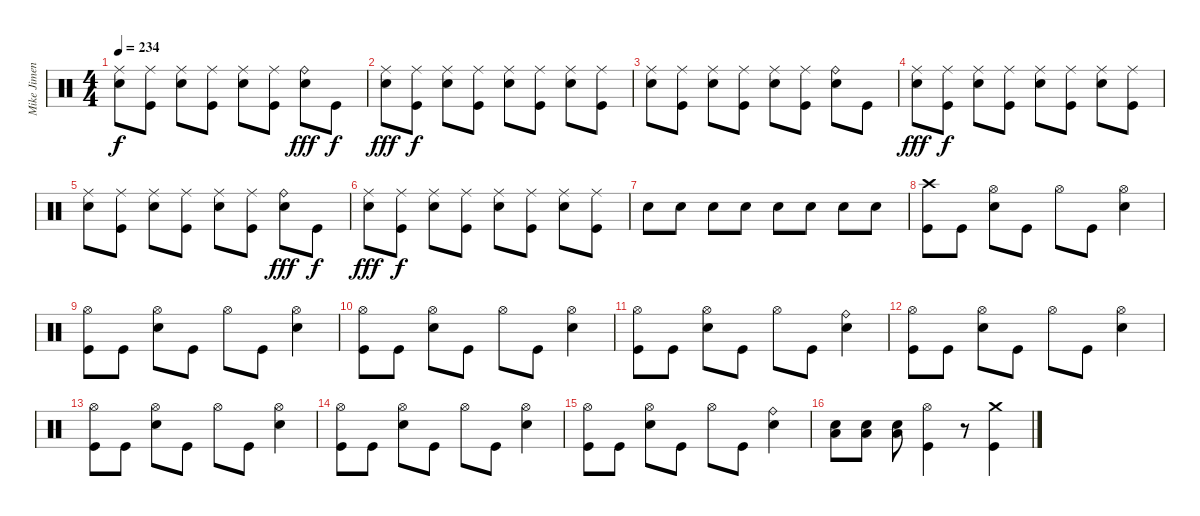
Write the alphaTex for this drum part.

\track ("Mike Jimenez" "Mike Jimen") {instrument percussion}
\staff {score}
\articulation defaults
\ts (4 4)
\tempo 234
\clef neutral
\ks c
("Ride (middle)" "Electric Snare (hit)").8{dy f} ("Ride (middle)" "Kick (hit)").8 ("Ride (middle)" "Electric Snare (hit)").8 ("Ride (middle)" "Kick (hit)").8 ("Ride (middle)" "Electric Snare (hit)").8 ("Ride (middle)" "Kick (hit)").8 ("Ride (bell)" "Electric Snare (hit)").8{dy fff} "Kick (hit)".8{dy f} |
("Ride (middle)" "Electric Snare (hit)").8{dy fff} ("Ride (middle)" "Kick (hit)").8{dy f} ("Ride (middle)" "Electric Snare (hit)").8 ("Ride (middle)" "Kick (hit)").8 ("Ride (middle)" "Electric Snare (hit)").8 ("Ride (middle)" "Kick (hit)").8 ("Ride (middle)" "Electric Snare (hit)").8 ("Ride (middle)" "Kick (hit)").8 |
("Ride (middle)" "Electric Snare (hit)").8 ("Ride (middle)" "Kick (hit)").8 ("Ride (middle)" "Electric Snare (hit)").8 ("Ride (middle)" "Kick (hit)").8 ("Ride (middle)" "Electric Snare (hit)").8 ("Ride (middle)" "Kick (hit)").8 ("Ride (bell)" "Electric Snare (hit)").8 "Kick (hit)".8 |
("Ride (middle)" "Electric Snare (hit)").8{dy fff} ("Ride (middle)" "Kick (hit)").8{dy f} ("Ride (middle)" "Electric Snare (hit)").8 ("Ride (middle)" "Kick (hit)").8 ("Ride (middle)" "Electric Snare (hit)").8 ("Ride (middle)" "Kick (hit)").8 ("Ride (middle)" "Electric Snare (hit)").8 ("Ride (middle)" "Kick (hit)").8 |
("Ride (middle)" "Electric Snare (hit)").8 ("Ride (middle)" "Kick (hit)").8 ("Ride (middle)" "Electric Snare (hit)").8 ("Ride (middle)" "Kick (hit)").8 ("Ride (middle)" "Electric Snare (hit)").8 ("Ride (middle)" "Kick (hit)").8 ("Ride (bell)" "Electric Snare (hit)").8{dy fff} "Kick (hit)".8{dy f} |
("Ride (middle)" "Electric Snare (hit)").8{dy fff} ("Ride (middle)" "Kick (hit)").8{dy f} ("Ride (middle)" "Electric Snare (hit)").8 ("Ride (middle)" "Kick (hit)").8 ("Ride (middle)" "Electric Snare (hit)").8 ("Ride (middle)" "Kick (hit)").8 ("Ride (middle)" "Electric Snare (hit)").8 ("Ride (middle)" "Kick (hit)").8 |
"Electric Snare (hit)".8 "Electric Snare (hit)".8 "Electric Snare (hit)".8 "Electric Snare (hit)".8 "Electric Snare (hit)".8 "Electric Snare (hit)".8 "Electric Snare (hit)".8 "Electric Snare (hit)".8 |
("Crash high (hit)" "Kick (hit)").8 "Kick (hit)".8 ("Hi-Hat (open)" "Electric Snare (hit)").8 "Kick (hit)".8 "Hi-Hat (open)".8 "Kick (hit)".8 ("Hi-Hat (open)" "Electric Snare (hit)").4 |
("Hi-Hat (open)" "Kick (hit)").8 "Kick (hit)".8 ("Hi-Hat (open)" "Electric Snare (hit)").8 "Kick (hit)".8 "Hi-Hat (open)".8 "Kick (hit)".8 ("Hi-Hat (open)" "Electric Snare (hit)").4 |
("Hi-Hat (open)" "Kick (hit)").8 "Kick (hit)".8 ("Hi-Hat (open)" "Electric Snare (hit)").8 "Kick (hit)".8 "Hi-Hat (open)".8 "Kick (hit)".8 ("Hi-Hat (open)" "Electric Snare (hit)").4 |
("Hi-Hat (open)" "Kick (hit)").8 "Kick (hit)".8 ("Hi-Hat (open)" "Electric Snare (hit)").8 "Kick (hit)".8 "Hi-Hat (open)".8 "Kick (hit)".8 ("Ride (bell)" "Electric Snare (hit)").4 |
("Hi-Hat (open)" "Kick (hit)").8 "Kick (hit)".8 ("Hi-Hat (open)" "Electric Snare (hit)").8 "Kick (hit)".8 "Hi-Hat (open)".8 "Kick (hit)".8 ("Hi-Hat (open)" "Electric Snare (hit)").4 |
("Hi-Hat (open)" "Kick (hit)").8 "Kick (hit)".8 ("Hi-Hat (open)" "Electric Snare (hit)").8 "Kick (hit)".8 "Hi-Hat (open)".8 "Kick (hit)".8 ("Hi-Hat (open)" "Electric Snare (hit)").4 |
("Hi-Hat (open)" "Kick (hit)").8 "Kick (hit)".8 ("Hi-Hat (open)" "Electric Snare (hit)").8 "Kick (hit)".8 "Hi-Hat (open)".8 "Kick (hit)".8 ("Hi-Hat (open)" "Electric Snare (hit)").4 |
("Hi-Hat (open)" "Kick (hit)").8 "Kick (hit)".8 ("Hi-Hat (open)" "Electric Snare (hit)").8 "Kick (hit)".8 "Hi-Hat (open)".8 "Kick (hit)".8 ("Ride (bell)" "Electric Snare (hit)").4 |
("Low Tom (hit)" "Electric Snare (hit)").8 ("Low Tom (hit)" "Electric Snare (hit)").8 ("Low Tom (hit)" "Electric Snare (hit)").8 ("Hi-Hat (open)" "Kick (hit)").4 r.8 ("Crash medium (hit)" "Kick (hit)").4
